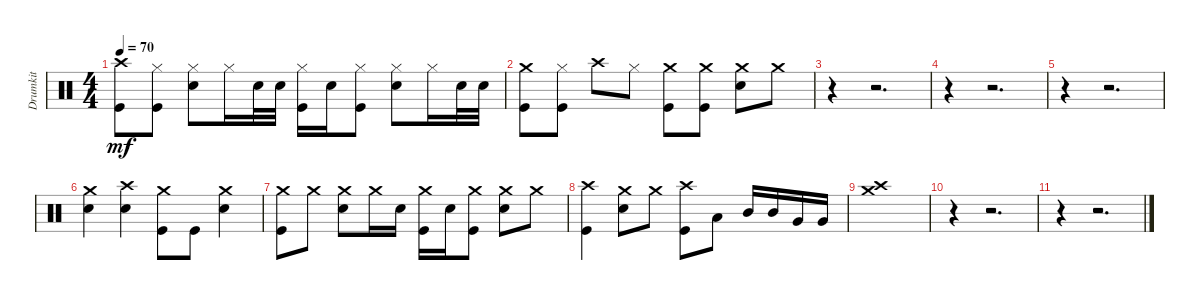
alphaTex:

\track ("Drumkit" "Drumkit") {instrument percussion}
\staff {score}
\articulation defaults
\ts (4 4)
\tempo 70
\clef neutral
\ks c
("Kick (hit)" "Crash high (hit)").8{dy mf} ("Hi-Hat (closed)" "Kick (hit)").8 ("Hi-Hat (closed)" "Snare (hit) 2").8 "Hi-Hat (closed)".16 "Snare (hit) 2".32 "Snare (hit) 2".32 ("Hi-Hat (closed)" "Kick (hit)").16 "Snare (hit) 2".16 ("Kick (hit)" "Hi-Hat (closed)").8 ("Hi-Hat (closed)" "Snare (hit) 2").8 "Hi-Hat (closed)".16 "Snare (hit) 2".32 "Snare (hit) 2".32 |
("Kick (hit)" "Crash medium (hit)").8 ("Hi-Hat (closed)" "Kick (hit)").8 "Crash high (hit)".8 "Hi-Hat (closed)".8 ("Kick (hit)" "Crash medium (hit)").8 ("Kick (hit)" "Crash medium (hit)").8 ("Snare (hit) 2" "Crash medium (hit)").8 "Crash medium (hit)".8 |
r.4 r.2{d} |
r.4 r.2{d} |
r.4 r.2{d} |
("Snare (hit) 2" "Crash medium (hit)").4 ("Snare (hit) 2" "Crash high (hit)").4 ("Kick (hit)" "Crash medium (hit)").8 "Kick (hit)".8 ("Snare (hit) 2" "Crash medium (hit)").4 |
("Kick (hit)" "Crash medium (hit)").8 "Crash medium (hit)".8 ("Snare (hit) 2" "Crash medium (hit)").8 "Crash medium (hit)".16 "Snare (hit) 2".16 ("Kick (hit)" "Crash medium (hit)").16 "Snare (hit) 2".16 ("Kick (hit)" "Crash medium (hit)").8 ("Snare (hit) 2" "Crash medium (hit)").8 "Crash medium (hit)".8 |
("Kick (hit)" "Crash high (hit)").4 ("Snare (hit) 2" "Crash medium (hit)").8 "Crash medium (hit)".8 ("Crash high (hit)" "Kick (hit)").8 "Low Tom (hit)".8 "Mid Tom (hit)".16 "Mid Tom (hit)".16 "Very Low Tom (hit)".16 "Very Low Tom (hit)".16 |
("Crash high (hit)" "Crash medium (hit)").1 |
r.4 r.2{d} |
r.4 r.2{d}
